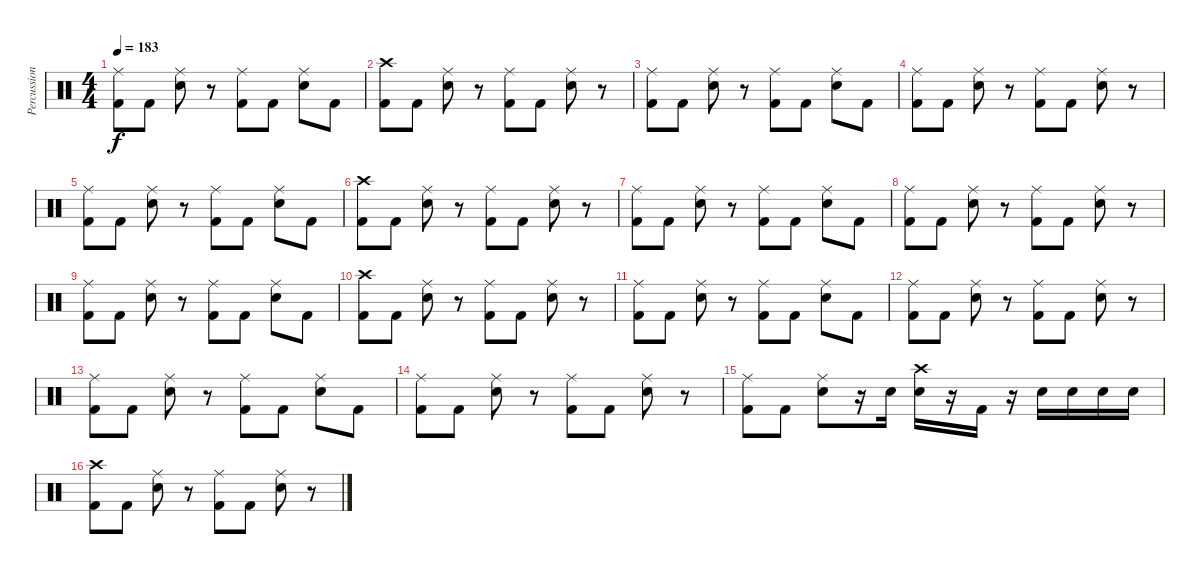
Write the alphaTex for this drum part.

\track ("Percussion" "Percussion") {instrument percussion}
\staff {score}
\articulation defaults
\ts (4 4)
\tempo 183
\clef neutral
\ks c
("Ride (middle)" "Kick (hit) 2").8{dy f} "Kick (hit) 2".8 ("Ride (middle)" "Electric Snare (hit)").8 r.8 ("Ride (middle)" "Kick (hit) 2").8 "Kick (hit) 2".8 ("Ride (middle)" "Electric Snare (hit)").8 "Kick (hit) 2".8 |
("Crash high (hit)" "Kick (hit) 2").8 "Kick (hit) 2".8 ("Ride (middle)" "Electric Snare (hit)").8 r.8 ("Ride (middle)" "Kick (hit) 2").8 "Kick (hit) 2".8 ("Ride (middle)" "Electric Snare (hit)").8 r.8 |
("Ride (middle)" "Kick (hit) 2").8 "Kick (hit) 2".8 ("Ride (middle)" "Electric Snare (hit)").8 r.8 ("Ride (middle)" "Kick (hit) 2").8 "Kick (hit) 2".8 ("Ride (middle)" "Electric Snare (hit)").8 "Kick (hit) 2".8 |
("Ride (middle)" "Kick (hit) 2").8 "Kick (hit) 2".8 ("Ride (middle)" "Electric Snare (hit)").8 r.8 ("Ride (middle)" "Kick (hit) 2").8 "Kick (hit) 2".8 ("Ride (middle)" "Electric Snare (hit)").8 r.8 |
("Ride (middle)" "Kick (hit) 2").8 "Kick (hit) 2".8 ("Ride (middle)" "Electric Snare (hit)").8 r.8 ("Ride (middle)" "Kick (hit) 2").8 "Kick (hit) 2".8 ("Ride (middle)" "Electric Snare (hit)").8 "Kick (hit) 2".8 |
("Crash high (hit)" "Kick (hit) 2").8 "Kick (hit) 2".8 ("Ride (middle)" "Electric Snare (hit)").8 r.8 ("Ride (middle)" "Kick (hit) 2").8 "Kick (hit) 2".8 ("Ride (middle)" "Electric Snare (hit)").8 r.8 |
("Ride (middle)" "Kick (hit) 2").8 "Kick (hit) 2".8 ("Ride (middle)" "Electric Snare (hit)").8 r.8 ("Ride (middle)" "Kick (hit) 2").8 "Kick (hit) 2".8 ("Ride (middle)" "Electric Snare (hit)").8 "Kick (hit) 2".8 |
("Ride (middle)" "Kick (hit) 2").8 "Kick (hit) 2".8 ("Ride (middle)" "Electric Snare (hit)").8 r.8 ("Ride (middle)" "Kick (hit) 2").8 "Kick (hit) 2".8 ("Ride (middle)" "Electric Snare (hit)").8 r.8 |
("Ride (middle)" "Kick (hit) 2").8 "Kick (hit) 2".8 ("Ride (middle)" "Electric Snare (hit)").8 r.8 ("Ride (middle)" "Kick (hit) 2").8 "Kick (hit) 2".8 ("Ride (middle)" "Electric Snare (hit)").8 "Kick (hit) 2".8 |
("Crash high (hit)" "Kick (hit) 2").8 "Kick (hit) 2".8 ("Ride (middle)" "Electric Snare (hit)").8 r.8 ("Ride (middle)" "Kick (hit) 2").8 "Kick (hit) 2".8 ("Ride (middle)" "Electric Snare (hit)").8 r.8 |
("Ride (middle)" "Kick (hit) 2").8 "Kick (hit) 2".8 ("Ride (middle)" "Electric Snare (hit)").8 r.8 ("Ride (middle)" "Kick (hit) 2").8 "Kick (hit) 2".8 ("Ride (middle)" "Electric Snare (hit)").8 "Kick (hit) 2".8 |
("Ride (middle)" "Kick (hit) 2").8 "Kick (hit) 2".8 ("Ride (middle)" "Electric Snare (hit)").8 r.8 ("Ride (middle)" "Kick (hit) 2").8 "Kick (hit) 2".8 ("Ride (middle)" "Electric Snare (hit)").8 r.8 |
("Ride (middle)" "Kick (hit) 2").8 "Kick (hit) 2".8 ("Ride (middle)" "Electric Snare (hit)").8 r.8 ("Ride (middle)" "Kick (hit) 2").8 "Kick (hit) 2".8 ("Ride (middle)" "Electric Snare (hit)").8 "Kick (hit) 2".8 |
("Ride (middle)" "Kick (hit) 2").8 "Kick (hit) 2".8 ("Ride (middle)" "Electric Snare (hit)").8 r.8 ("Ride (middle)" "Kick (hit) 2").8 "Kick (hit) 2".8 ("Ride (middle)" "Electric Snare (hit)").8 r.8 |
("Ride (middle)" "Kick (hit) 2").8 "Kick (hit) 2".8 ("Ride (middle)" "Electric Snare (hit)").8 r.16 "Electric Snare (hit)".16 ("Crash high (hit)" "Electric Snare (hit)").16 r.16 "Kick (hit) 2".16 r.16 "Electric Snare (hit)".16 "Electric Snare (hit)".16 "Electric Snare (hit)".16 "Electric Snare (hit)".16 |
\section ("" "")
("Crash high (hit)" "Kick (hit) 2").8 "Kick (hit) 2".8 ("Ride (middle)" "Electric Snare (hit)").8 r.8 ("Ride (middle)" "Kick (hit) 2").8 "Kick (hit) 2".8 ("Ride (middle)" "Electric Snare (hit)").8 r.8
